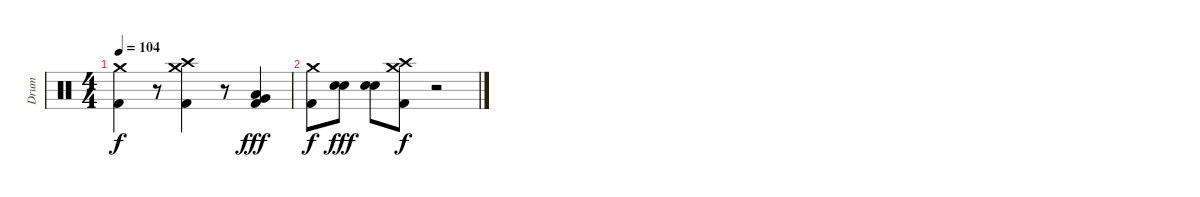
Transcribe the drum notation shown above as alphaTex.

\track ("Drum" "Drum") {instrument percussion}
\staff {score}
\articulation defaults
\ts (4 4)
\tempo 104
\clef neutral
\ks c
("Crash medium (hit)" "Kick (hit) 2").4{dy f} r.8 ("Crash high (hit)" "Crash medium (hit)" "Kick (hit) 2").4 r.8 ("Very Low Tom (hit)" "Low Tom (hit)" "Kick (hit) 2").4{dy fff} |
("Crash medium (hit)" "Kick (hit) 2").8{dy f} ("Snare (hit) 2" "Electric Snare (hit)").8{dy fff} ("Snare (hit) 2" "Electric Snare (hit)").8 ("Crash high (hit)" "Crash medium (hit)" "Kick (hit) 2").8{dy f} r.2
